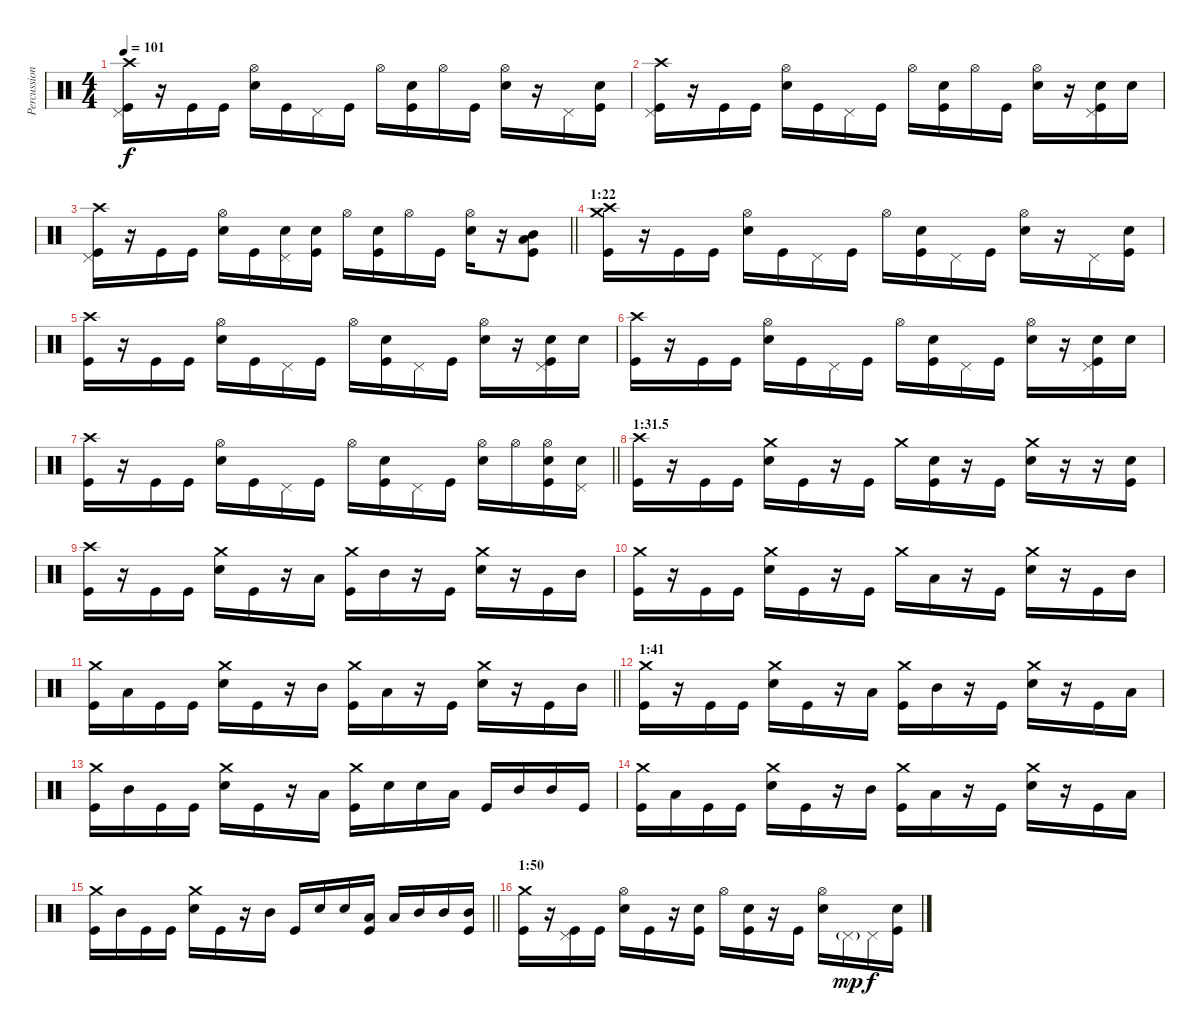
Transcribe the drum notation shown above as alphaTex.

\track ("Percussion" "Percussion") {instrument percussion}
\staff {score}
\articulation defaults
\ts (4 4)
\tempo 101
\clef neutral
\ks c
("Crash high (hit)" "Kick (hit)" "Pedal Hi-Hat (hit)").16{dy f} r.16 "Kick (hit)".16 "Kick (hit)".16 ("Hi-Hat (open)" "Snare (hit) 2").16 "Kick (hit)".16 "Pedal Hi-Hat (hit)".16 "Kick (hit)".16 "Hi-Hat (open)".16 ("Snare (hit) 2" "Kick (hit)").16 "Hi-Hat (open)".16 "Kick (hit)".16 ("Hi-Hat (open)" "Snare (hit) 2").16 r.16 "Pedal Hi-Hat (hit)".16 ("Snare (hit) 2" "Kick (hit)").16 |
("Crash high (hit)" "Kick (hit)" "Pedal Hi-Hat (hit)").16 r.16 "Kick (hit)".16 "Kick (hit)".16 ("Hi-Hat (open)" "Snare (hit) 2").16 "Kick (hit)".16 "Pedal Hi-Hat (hit)".16 "Kick (hit)".16 "Hi-Hat (open)".16 ("Snare (hit) 2" "Kick (hit)").16 "Hi-Hat (open)".16 "Kick (hit)".16 ("Hi-Hat (open)" "Snare (hit) 2").16 r.16 ("Snare (hit) 2" "Kick (hit)" "Pedal Hi-Hat (hit)").16 "Snare (hit) 2".16 |
\barLineRight lightlight
("Crash high (hit)" "Kick (hit)" "Pedal Hi-Hat (hit)").16 r.16 "Kick (hit)".16 "Kick (hit)".16 ("Hi-Hat (open)" "Snare (hit) 2").16 "Kick (hit)".16 ("Snare (hit) 2" "Pedal Hi-Hat (hit)").16 ("Snare (hit) 2" "Kick (hit)").16 "Hi-Hat (open)".16 ("Snare (hit) 2" "Kick (hit)").16 "Hi-Hat (open)".16 "Kick (hit)".16 ("Hi-Hat (open)" "Snare (hit) 2").16 r.16 ("Mid Tom (hit)" "Low Tom (hit)" "Kick (hit)").8 |
\section ("" "1:22")
("Crash high (hit)" "Crash medium (hit)" "Kick (hit)").16 r.16 "Kick (hit)".16 "Kick (hit)".16 ("Hi-Hat (open)" "Snare (hit) 2").16 "Kick (hit)".16 "Pedal Hi-Hat (hit)".16 "Kick (hit)".16 "Hi-Hat (open)".16 ("Snare (hit) 2" "Kick (hit)").16 "Pedal Hi-Hat (hit)".16 "Kick (hit)".16 ("Hi-Hat (open)" "Snare (hit) 2").16 r.16 "Pedal Hi-Hat (hit)".16 ("Snare (hit) 2" "Kick (hit)").16 |
("Crash high (hit)" "Kick (hit)").16 r.16 "Kick (hit)".16 "Kick (hit)".16 ("Hi-Hat (open)" "Snare (hit) 2").16 "Kick (hit)".16 "Pedal Hi-Hat (hit)".16 "Kick (hit)".16 "Hi-Hat (open)".16 ("Snare (hit) 2" "Kick (hit)").16 "Pedal Hi-Hat (hit)".16 "Kick (hit)".16 ("Hi-Hat (open)" "Snare (hit) 2").16 r.16 ("Snare (hit) 2" "Kick (hit)" "Pedal Hi-Hat (hit)").16 "Snare (hit) 2".16 |
("Crash high (hit)" "Kick (hit)").16 r.16 "Kick (hit)".16 "Kick (hit)".16 ("Hi-Hat (open)" "Snare (hit) 2").16 "Kick (hit)".16 "Pedal Hi-Hat (hit)".16 "Kick (hit)".16 "Hi-Hat (open)".16 ("Snare (hit) 2" "Kick (hit)").16 "Pedal Hi-Hat (hit)".16 "Kick (hit)".16 ("Hi-Hat (open)" "Snare (hit) 2").16 r.16 ("Snare (hit) 2" "Kick (hit)" "Pedal Hi-Hat (hit)").16 "Snare (hit) 2".16 |
\barLineRight lightlight
("Crash high (hit)" "Kick (hit)").16 r.16 "Kick (hit)".16 "Kick (hit)".16 ("Hi-Hat (open)" "Snare (hit) 2").16 "Kick (hit)".16 "Pedal Hi-Hat (hit)".16 "Kick (hit)".16 "Hi-Hat (open)".16 ("Snare (hit) 2" "Kick (hit)").16 "Pedal Hi-Hat (hit)".16 "Kick (hit)".16 ("Hi-Hat (open)" "Snare (hit) 2").16 "Hi-Hat (open)".16 ("Hi-Hat (open)" "Snare (hit) 2" "Kick (hit)").16 ("Snare (hit) 2" "Pedal Hi-Hat (hit)").16 |
\section ("" "1:31.5")
("Crash high (hit)" "Kick (hit)").16 r.16 "Kick (hit)".16 "Kick (hit)".16 ("Crash medium (hit)" "Snare (hit) 2").16 "Kick (hit)".16 r.16 "Kick (hit)".16 "Crash medium (hit)".16 ("Snare (hit) 2" "Kick (hit)").16 r.16 "Kick (hit)".16 ("Crash medium (hit)" "Snare (hit) 2").16 r.16 r.16 ("Snare (hit) 2" "Kick (hit)").16 |
("Crash high (hit)" "Kick (hit)").16 r.16 "Kick (hit)".16 "Kick (hit)".16 ("Crash medium (hit)" "Snare (hit) 2").16 "Kick (hit)".16 r.16 "Low Tom (hit)".16 ("Crash medium (hit)" "Kick (hit)").16 "Mid Tom (hit)".16 r.16 "Kick (hit)".16 ("Crash medium (hit)" "Snare (hit) 2").16 r.16 "Kick (hit)".16 "Mid Tom (hit)".16 |
("Crash medium (hit)" "Kick (hit)").16 r.16 "Kick (hit)".16 "Kick (hit)".16 ("Crash medium (hit)" "Snare (hit) 2").16 "Kick (hit)".16 r.16 "Kick (hit)".16 "Crash medium (hit)".16 "Low Tom (hit)".16 r.16 "Kick (hit)".16 ("Crash medium (hit)" "Snare (hit) 2").16 r.16 "Kick (hit)".16 "Mid Tom (hit)".16 |
\barLineRight lightlight
("Crash medium (hit)" "Kick (hit)").16 "Low Tom (hit)".16 "Kick (hit)".16 "Kick (hit)".16 ("Crash medium (hit)" "Snare (hit) 2").16 "Kick (hit)".16 r.16 "Mid Tom (hit)".16 ("Crash medium (hit)" "Kick (hit)").16 "Low Tom (hit)".16 r.16 "Kick (hit)".16 ("Crash medium (hit)" "Snare (hit) 2").16 r.16 "Kick (hit)".16 "Mid Tom (hit)".16 |
\section ("" "1:41")
("Crash medium (hit)" "Kick (hit)").16 r.16 "Kick (hit)".16 "Kick (hit)".16 ("Crash medium (hit)" "Snare (hit) 2").16 "Kick (hit)".16 r.16 "Low Tom (hit)".16 ("Crash medium (hit)" "Kick (hit)").16 "Mid Tom (hit)".16 r.16 "Kick (hit)".16 ("Crash medium (hit)" "Snare (hit) 2").16 r.16 "Kick (hit)".16 "Low Tom (hit)".16 |
("Crash medium (hit)" "Kick (hit)").16 "Mid Tom (hit)".16 "Kick (hit)".16 "Kick (hit)".16 ("Crash medium (hit)" "Snare (hit) 2").16 "Kick (hit)".16 r.16 "Low Tom (hit)".16 ("Crash medium (hit)" "Kick (hit)").16 "Snare (hit) 2".16 "Snare (hit) 2".16 "Low Tom (hit)".16 "Kick (hit)".16 "Mid Tom (hit)".16 "Mid Tom (hit)".16 "Kick (hit)".16 |
("Crash medium (hit)" "Kick (hit)").16 "Low Tom (hit)".16 "Kick (hit)".16 "Kick (hit)".16 ("Crash medium (hit)" "Snare (hit) 2").16 "Kick (hit)".16 r.16 "Mid Tom (hit)".16 ("Crash medium (hit)" "Kick (hit)").16 "Low Tom (hit)".16 r.16 "Kick (hit)".16 ("Crash medium (hit)" "Snare (hit) 2").16 r.16 "Kick (hit)".16 "Low Tom (hit)".16 |
\barLineRight lightlight
("Crash medium (hit)" "Kick (hit)").16 "Mid Tom (hit)".16 "Kick (hit)".16 "Kick (hit)".16 ("Crash medium (hit)" "Snare (hit) 2").16 "Kick (hit)".16 r.16 "Mid Tom (hit)".16 "Kick (hit)".16 "Snare (hit) 2".16 "Snare (hit) 2".16 ("Low Tom (hit)" "Kick (hit)").16 "Low Tom (hit)".16 "Mid Tom (hit)".16 "Mid Tom (hit)".16 ("Mid Tom (hit)" "Kick (hit)").16 |
\section ("" "1:50")
("Crash medium (hit)" "Kick (hit)").16 r.16 ("Kick (hit)" "Pedal Hi-Hat (hit)").16 "Kick (hit)".16 ("Hi-Hat (open)" "Snare (hit) 2").16 "Kick (hit)".16 r.16 ("Snare (hit) 2" "Kick (hit)").16 "Hi-Hat (open)".16 ("Snare (hit) 2" "Kick (hit)").16 r.16 "Kick (hit)".16 ("Hi-Hat (open)" "Snare (hit) 2").16 "Pedal Hi-Hat (hit)"{g}.16{dy mp} "Pedal Hi-Hat (hit)".16{dy f} ("Snare (hit) 2" "Kick (hit)").16
